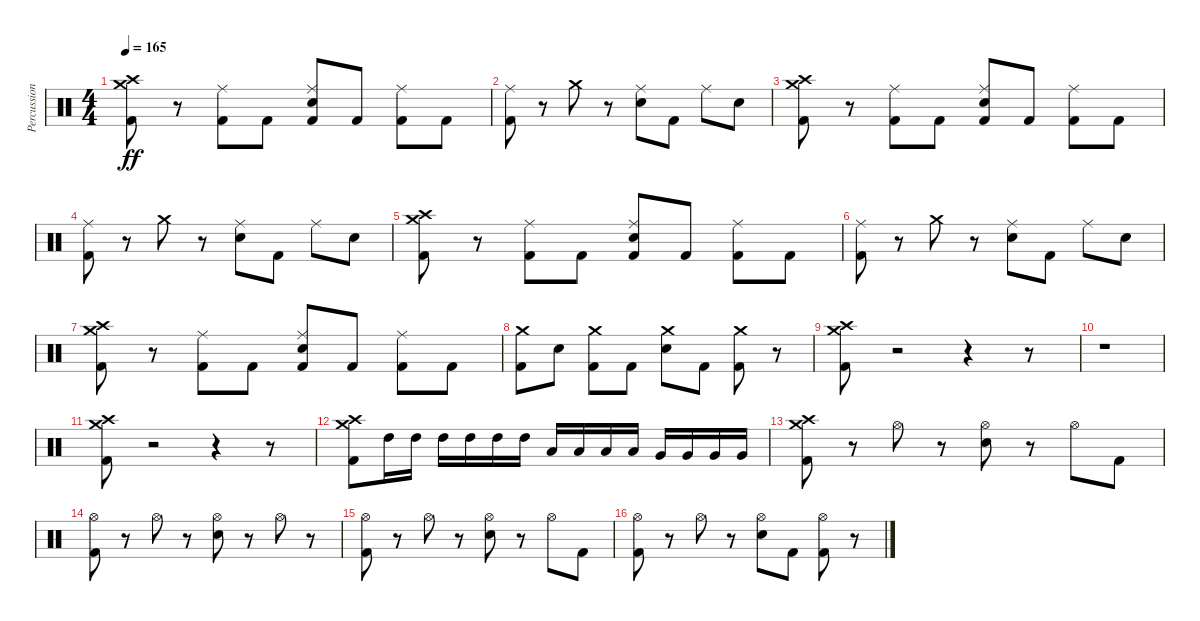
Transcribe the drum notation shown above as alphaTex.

\track ("Percussion" "Percussion") {instrument percussion}
\staff {score}
\articulation defaults
\ts (4 4)
\tempo 165
\clef neutral
\ks c
("Kick (hit) 2" "Crash medium (hit)" "Crash high (hit)").8{dy ff} r.8 ("Kick (hit) 2" "Ride (middle)").8 "Kick (hit) 2".8 ("Kick (hit) 2" "Electric Snare (hit)" "Ride (middle)").8 "Kick (hit) 2".8 ("Kick (hit) 2" "Ride (middle)").8 "Kick (hit) 2".8 |
("Kick (hit) 2" "Ride (middle)").8 r.8 "Crash medium (hit)".8 r.8 ("Electric Snare (hit)" "Ride (middle)").8 "Kick (hit) 2".8 "Ride (middle)".8 "Electric Snare (hit)".8 |
("Kick (hit) 2" "Crash medium (hit)" "Crash high (hit)").8 r.8 ("Kick (hit) 2" "Ride (middle)").8 "Kick (hit) 2".8 ("Kick (hit) 2" "Electric Snare (hit)" "Ride (middle)").8 "Kick (hit) 2".8 ("Kick (hit) 2" "Ride (middle)").8 "Kick (hit) 2".8 |
("Kick (hit) 2" "Ride (middle)").8 r.8 "Crash medium (hit)".8 r.8 ("Electric Snare (hit)" "Ride (middle)").8 "Kick (hit) 2".8 "Ride (middle)".8 "Electric Snare (hit)".8 |
("Kick (hit) 2" "Crash medium (hit)" "Crash high (hit)").8 r.8 ("Kick (hit) 2" "Ride (middle)").8 "Kick (hit) 2".8 ("Kick (hit) 2" "Electric Snare (hit)" "Ride (middle)").8 "Kick (hit) 2".8 ("Kick (hit) 2" "Ride (middle)").8 "Kick (hit) 2".8 |
("Kick (hit) 2" "Ride (middle)").8 r.8 "Crash medium (hit)".8 r.8 ("Electric Snare (hit)" "Ride (middle)").8 "Kick (hit) 2".8 "Ride (middle)".8 "Electric Snare (hit)".8 |
("Kick (hit) 2" "Crash medium (hit)" "Crash high (hit)").8 r.8 ("Kick (hit) 2" "Ride (middle)").8 "Kick (hit) 2".8 ("Kick (hit) 2" "Electric Snare (hit)" "Ride (middle)").8 "Kick (hit) 2".8 ("Kick (hit) 2" "Ride (middle)").8 "Kick (hit) 2".8 |
("Kick (hit) 2" "Crash medium (hit)").8 "Electric Snare (hit)".8 ("Kick (hit) 2" "Crash medium (hit)").8 "Kick (hit) 2".8 ("Crash medium (hit)" "Electric Snare (hit)").8 "Kick (hit) 2".8 ("Kick (hit) 2" "Crash medium (hit)").8 r.8 |
("Kick (hit) 2" "Crash medium (hit)" "Crash high (hit)").8 r.2 r.4 r.8 |
r.1 |
("Kick (hit) 2" "Crash medium (hit)" "Crash high (hit)").8 r.2 r.4 r.8 |
("Kick (hit) 2" "Crash medium (hit)" "Crash high (hit)").8 "High Tom (hit)".16 "High Tom (hit)".16 "High Tom (hit)".16 "High Tom (hit)".16 "High Tom (hit)".16 "High Tom (hit)".16 "Low Tom (hit)".16 "Low Tom (hit)".16 "Low Tom (hit)".16 "Low Tom (hit)".16 "Very Low Tom (hit)".16 "Very Low Tom (hit)".16 "Very Low Tom (hit)".16 "Very Low Tom (hit)".16 |
("Kick (hit) 2" "Crash medium (hit)" "Crash high (hit)").8 r.8 "Hi-Hat (open)".8 r.8 ("Electric Snare (hit)" "Hi-Hat (open)").8 r.8 "Hi-Hat (open)".8 "Kick (hit) 2".8 |
("Kick (hit) 2" "Hi-Hat (open)").8 r.8 "Hi-Hat (open)".8 r.8 ("Electric Snare (hit)" "Hi-Hat (open)").8 r.8 "Hi-Hat (open)".8 r.8 |
("Kick (hit) 2" "Hi-Hat (open)").8 r.8 "Hi-Hat (open)".8 r.8 ("Electric Snare (hit)" "Hi-Hat (open)").8 r.8 "Hi-Hat (open)".8 "Kick (hit) 2".8 |
("Kick (hit) 2" "Hi-Hat (open)").8 r.8 "Hi-Hat (open)".8 r.8 ("Electric Snare (hit)" "Hi-Hat (open)").8 "Kick (hit) 2".8 ("Kick (hit) 2" "Hi-Hat (open)").8 r.8
